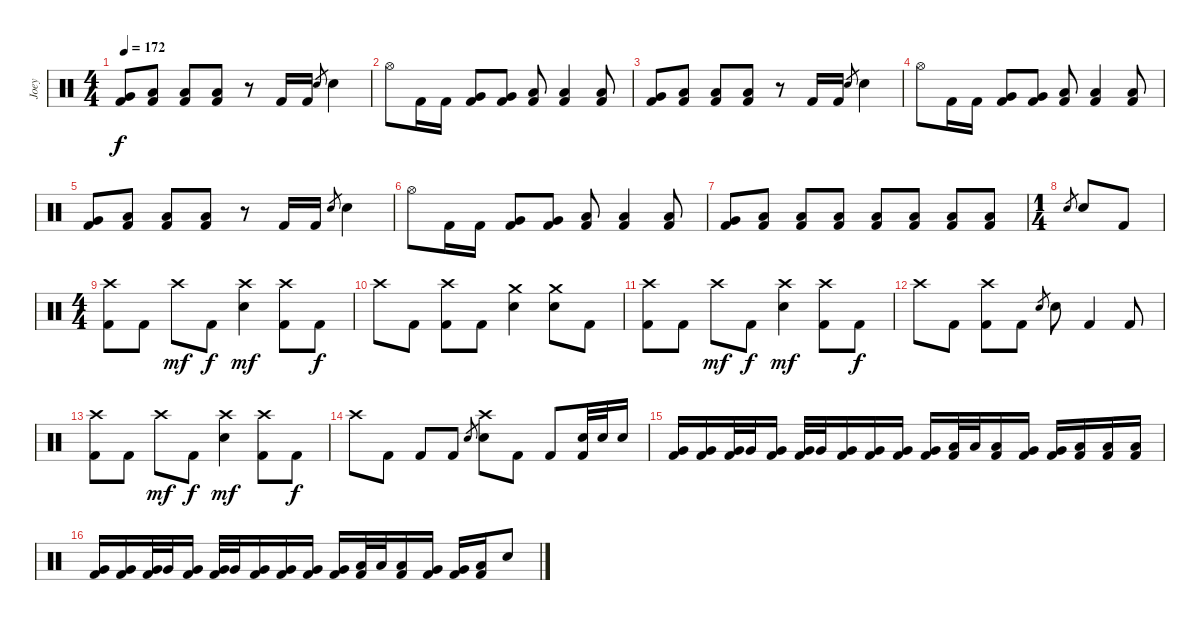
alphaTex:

\track ("Joey" "Joey") {instrument percussion}
\staff {score}
\articulation defaults
\ts (4 4)
\tempo 172
\clef neutral
\ks c
("Very Low Tom (hit)" "Kick (hit) 2").8{dy f} ("Low Floor Tom (hit)" "Kick (hit) 2").8 ("Low Floor Tom (hit)" "Kick (hit) 2").8 ("Low Floor Tom (hit)" "Kick (hit) 2").8 r.8 "Kick (hit) 2".16 "Kick (hit) 2".16 "Electric Snare (hit)".8{gr} "Electric Snare (hit)".4 |
"Hi-Hat (open)".8 "Kick (hit) 2".16 "Kick (hit) 2".16 ("Very Low Tom (hit)" "Kick (hit) 2").8 ("Very Low Tom (hit)" "Kick (hit) 2").8 ("Low Floor Tom (hit)" "Kick (hit) 2").8 ("Low Floor Tom (hit)" "Kick (hit) 2").4 ("Low Floor Tom (hit)" "Kick (hit) 2").8 |
("Very Low Tom (hit)" "Kick (hit) 2").8 ("Low Floor Tom (hit)" "Kick (hit) 2").8 ("Low Floor Tom (hit)" "Kick (hit) 2").8 ("Low Floor Tom (hit)" "Kick (hit) 2").8 r.8 "Kick (hit) 2".16 "Kick (hit) 2".16 "Electric Snare (hit)".8{gr} "Electric Snare (hit)".4 |
"Hi-Hat (open)".8 "Kick (hit) 2".16 "Kick (hit) 2".16 ("Very Low Tom (hit)" "Kick (hit) 2").8 ("Very Low Tom (hit)" "Kick (hit) 2").8 ("Low Floor Tom (hit)" "Kick (hit) 2").8 ("Low Floor Tom (hit)" "Kick (hit) 2").4 ("Low Floor Tom (hit)" "Kick (hit) 2").8 |
("Very Low Tom (hit)" "Kick (hit) 2").8 ("Low Floor Tom (hit)" "Kick (hit) 2").8 ("Low Floor Tom (hit)" "Kick (hit) 2").8 ("Low Floor Tom (hit)" "Kick (hit) 2").8 r.8 "Kick (hit) 2".16 "Kick (hit) 2".16 "Electric Snare (hit)".8{gr} "Electric Snare (hit)".4 |
"Hi-Hat (open)".8 "Kick (hit) 2".16 "Kick (hit) 2".16 ("Very Low Tom (hit)" "Kick (hit) 2").8 ("Very Low Tom (hit)" "Kick (hit) 2").8 ("Low Floor Tom (hit)" "Kick (hit) 2").8 ("Low Floor Tom (hit)" "Kick (hit) 2").4 ("Low Floor Tom (hit)" "Kick (hit) 2").8 |
("Very Low Tom (hit)" "Kick (hit) 2").8 ("Low Floor Tom (hit)" "Kick (hit) 2").8 ("Low Floor Tom (hit)" "Kick (hit) 2").8 ("Low Floor Tom (hit)" "Kick (hit) 2").8 ("Low Floor Tom (hit)" "Kick (hit) 2").8 ("Low Floor Tom (hit)" "Kick (hit) 2").8 ("Low Floor Tom (hit)" "Kick (hit) 2").8 ("Low Floor Tom (hit)" "Kick (hit) 2").8 |
\ts (1 4)
"Electric Snare (hit)".8{gr} "Electric Snare (hit)".8 "Kick (hit) 2".8 |
\ts (4 4)
("Crash high (hit)" "Kick (hit) 2").8 "Kick (hit) 2".8 "Crash high (hit)".8{dy mf} "Kick (hit) 2".8{dy f} ("Crash high (hit)" "Electric Snare (hit)").4{dy mf} ("Crash high (hit)" "Kick (hit) 2").8 "Kick (hit) 2".8{dy f} |
"Crash high (hit)".8 "Kick (hit) 2".8 ("Crash high (hit)" "Kick (hit) 2").8 "Kick (hit) 2".8 ("Crash medium (hit)" "Electric Snare (hit)").4 ("Crash medium (hit)" "Electric Snare (hit)").8 "Kick (hit) 2".8 |
("Crash high (hit)" "Kick (hit) 2").8 "Kick (hit) 2".8 "Crash high (hit)".8{dy mf} "Kick (hit) 2".8{dy f} ("Crash high (hit)" "Electric Snare (hit)").4{dy mf} ("Crash high (hit)" "Kick (hit) 2").8 "Kick (hit) 2".8{dy f} |
"Crash high (hit)".8 "Kick (hit) 2".8 ("Crash high (hit)" "Kick (hit) 2").8 "Kick (hit) 2".8 "Electric Snare (hit)".8{gr} "Electric Snare (hit)".8 "Kick (hit) 2".4 "Kick (hit) 2".8 |
("Crash high (hit)" "Kick (hit) 2").8 "Kick (hit) 2".8 "Crash high (hit)".8{dy mf} "Kick (hit) 2".8{dy f} ("Crash high (hit)" "Electric Snare (hit)").4{dy mf} ("Crash high (hit)" "Kick (hit) 2").8 "Kick (hit) 2".8{dy f} |
"Crash high (hit)".8 "Kick (hit) 2".8 "Kick (hit) 2".8 "Kick (hit) 2".8 "Electric Snare (hit)".8{gr} ("Crash high (hit)" "Electric Snare (hit)").8 "Kick (hit) 2".8 "Kick (hit) 2".8 ("Electric Snare (hit)" "Kick (hit) 2").32 "Electric Snare (hit)".32 "Electric Snare (hit)".16 |
("Very Low Tom (hit)" "Kick (hit) 2").16 ("Very Low Tom (hit)" "Kick (hit) 2").16 ("Very Low Tom (hit)" "Kick (hit) 2").32 "Very Low Tom (hit)".32 ("Very Low Tom (hit)" "Kick (hit) 2").16 ("Very Low Tom (hit)" "Kick (hit) 2").32 "Very Low Tom (hit)".32 ("Very Low Tom (hit)" "Kick (hit) 2").16 ("Very Low Tom (hit)" "Kick (hit) 2").16 ("Very Low Tom (hit)" "Kick (hit) 2").16 ("Very Low Tom (hit)" "Kick (hit) 2").16 ("Low Floor Tom (hit)" "Kick (hit) 2").32 "Low Floor Tom (hit)".32 ("Low Floor Tom (hit)" "Kick (hit) 2").16 ("Very Low Tom (hit)" "Kick (hit) 2").16 ("Very Low Tom (hit)" "Kick (hit) 2").16 ("Low Floor Tom (hit)" "Kick (hit) 2").16 ("Low Floor Tom (hit)" "Kick (hit) 2").16 ("Low Floor Tom (hit)" "Kick (hit) 2").16 |
("Very Low Tom (hit)" "Kick (hit) 2").16 ("Very Low Tom (hit)" "Kick (hit) 2").16 ("Very Low Tom (hit)" "Kick (hit) 2").32 "Very Low Tom (hit)".32 ("Very Low Tom (hit)" "Kick (hit) 2").16 ("Very Low Tom (hit)" "Kick (hit) 2").32 "Very Low Tom (hit)".32 ("Very Low Tom (hit)" "Kick (hit) 2").16 ("Very Low Tom (hit)" "Kick (hit) 2").16 ("Very Low Tom (hit)" "Kick (hit) 2").16 ("Very Low Tom (hit)" "Kick (hit) 2").16 ("Low Floor Tom (hit)" "Kick (hit) 2").32 "Low Floor Tom (hit)".32 ("Low Floor Tom (hit)" "Kick (hit) 2").16 ("Very Low Tom (hit)" "Kick (hit) 2").16 ("Very Low Tom (hit)" "Kick (hit) 2").16 ("Low Floor Tom (hit)" "Kick (hit) 2").16 "Electric Snare (hit)".8
